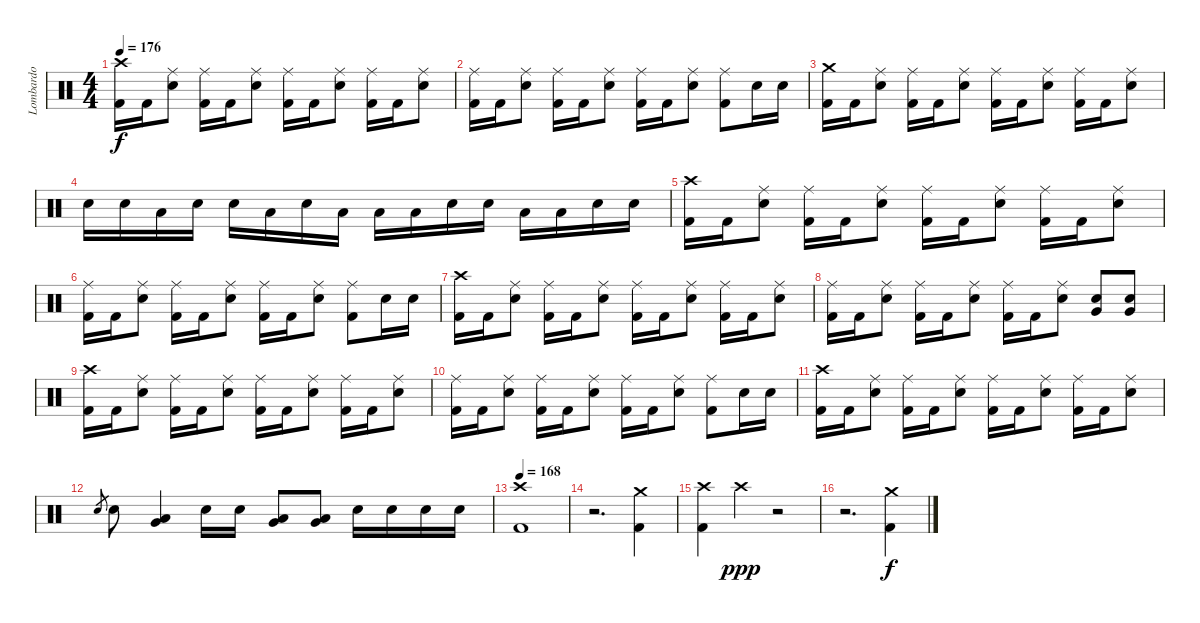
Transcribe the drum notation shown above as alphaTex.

\track ("Lombardo" "Lombardo") {instrument percussion}
\staff {score}
\articulation defaults
\ts (4 4)
\tempo 176
\clef neutral
\ks c
("Crash high (hit)" "Kick (hit) 2").16{dy f} "Kick (hit) 2".16 ("Ride (middle)" "Electric Snare (hit)").8 ("Ride (middle)" "Kick (hit) 2").16 "Kick (hit) 2".16 ("Ride (middle)" "Electric Snare (hit)").8 ("Ride (middle)" "Kick (hit) 2").16 "Kick (hit) 2".16 ("Ride (middle)" "Electric Snare (hit)").8 ("Ride (middle)" "Kick (hit) 2").16 "Kick (hit) 2".16 ("Ride (middle)" "Electric Snare (hit)").8 |
("Ride (middle)" "Kick (hit) 2").16 "Kick (hit) 2".16 ("Ride (middle)" "Electric Snare (hit)").8 ("Ride (middle)" "Kick (hit) 2").16 "Kick (hit) 2".16 ("Ride (middle)" "Electric Snare (hit)").8 ("Ride (middle)" "Kick (hit) 2").16 "Kick (hit) 2".16 ("Ride (middle)" "Electric Snare (hit)").8 ("Ride (middle)" "Kick (hit) 2").8 "Electric Snare (hit)".16 "Electric Snare (hit)".16 |
("Crash medium (hit)" "Kick (hit) 2").16 "Kick (hit) 2".16 ("Ride (middle)" "Electric Snare (hit)").8 ("Ride (middle)" "Kick (hit) 2").16 "Kick (hit) 2".16 ("Ride (middle)" "Electric Snare (hit)").8 ("Ride (middle)" "Kick (hit) 2").16 "Kick (hit) 2".16 ("Ride (middle)" "Electric Snare (hit)").8 ("Ride (middle)" "Kick (hit) 2").16 "Kick (hit) 2".16 ("Ride (middle)" "Electric Snare (hit)").8 |
"Electric Snare (hit)".16 "Electric Snare (hit)".16 "Low Tom (hit)".16 "Electric Snare (hit)".16 "Electric Snare (hit)".16 "Low Tom (hit)".16 "Electric Snare (hit)".16 "Low Tom (hit)".16 "Low Tom (hit)".16 "Low Tom (hit)".16 "Electric Snare (hit)".16 "Electric Snare (hit)".16 "Low Tom (hit)".16 "Low Tom (hit)".16 "Electric Snare (hit)".16 "Electric Snare (hit)".16 |
("Crash high (hit)" "Kick (hit) 2").16 "Kick (hit) 2".16 ("Ride (middle)" "Electric Snare (hit)").8 ("Ride (middle)" "Kick (hit) 2").16 "Kick (hit) 2".16 ("Ride (middle)" "Electric Snare (hit)").8 ("Ride (middle)" "Kick (hit) 2").16 "Kick (hit) 2".16 ("Ride (middle)" "Electric Snare (hit)").8 ("Ride (middle)" "Kick (hit) 2").16 "Kick (hit) 2".16 ("Ride (middle)" "Electric Snare (hit)").8 |
("Ride (middle)" "Kick (hit) 2").16 "Kick (hit) 2".16 ("Ride (middle)" "Electric Snare (hit)").8 ("Ride (middle)" "Kick (hit) 2").16 "Kick (hit) 2".16 ("Ride (middle)" "Electric Snare (hit)").8 ("Ride (middle)" "Kick (hit) 2").16 "Kick (hit) 2".16 ("Ride (middle)" "Electric Snare (hit)").8 ("Ride (middle)" "Kick (hit) 2").8 "Electric Snare (hit)".16 "Electric Snare (hit)".16 |
("Crash high (hit)" "Kick (hit) 2").16 "Kick (hit) 2".16 ("Ride (middle)" "Electric Snare (hit)").8 ("Ride (middle)" "Kick (hit) 2").16 "Kick (hit) 2".16 ("Ride (middle)" "Electric Snare (hit)").8 ("Ride (middle)" "Kick (hit) 2").16 "Kick (hit) 2".16 ("Ride (middle)" "Electric Snare (hit)").8 ("Ride (middle)" "Kick (hit) 2").16 "Kick (hit) 2".16 ("Ride (middle)" "Electric Snare (hit)").8 |
("Ride (middle)" "Kick (hit) 2").16 "Kick (hit) 2".16 ("Ride (middle)" "Electric Snare (hit)").8 ("Ride (middle)" "Kick (hit) 2").16 "Kick (hit) 2".16 ("Ride (middle)" "Electric Snare (hit)").8 ("Ride (middle)" "Kick (hit) 2").16 "Kick (hit) 2".16 ("Ride (middle)" "Electric Snare (hit)").8 ("Very Low Tom (hit)" "Electric Snare (hit)").8 ("Very Low Tom (hit)" "Electric Snare (hit)").8 |
("Crash high (hit)" "Kick (hit) 2").16 "Kick (hit) 2".16 ("Ride (middle)" "Electric Snare (hit)").8 ("Ride (middle)" "Kick (hit) 2").16 "Kick (hit) 2".16 ("Ride (middle)" "Electric Snare (hit)").8 ("Ride (middle)" "Kick (hit) 2").16 "Kick (hit) 2".16 ("Ride (middle)" "Electric Snare (hit)").8 ("Ride (middle)" "Kick (hit) 2").16 "Kick (hit) 2".16 ("Ride (middle)" "Electric Snare (hit)").8 |
("Ride (middle)" "Kick (hit) 2").16 "Kick (hit) 2".16 ("Ride (middle)" "Electric Snare (hit)").8 ("Ride (middle)" "Kick (hit) 2").16 "Kick (hit) 2".16 ("Ride (middle)" "Electric Snare (hit)").8 ("Ride (middle)" "Kick (hit) 2").16 "Kick (hit) 2".16 ("Ride (middle)" "Electric Snare (hit)").8 ("Ride (middle)" "Kick (hit) 2").8 "Electric Snare (hit)".16 "Electric Snare (hit)".16 |
("Crash high (hit)" "Kick (hit) 2").16 "Kick (hit) 2".16 ("Ride (middle)" "Electric Snare (hit)").8 ("Ride (middle)" "Kick (hit) 2").16 "Kick (hit) 2".16 ("Ride (middle)" "Electric Snare (hit)").8 ("Ride (middle)" "Kick (hit) 2").16 "Kick (hit) 2".16 ("Ride (middle)" "Electric Snare (hit)").8 ("Ride (middle)" "Kick (hit) 2").16 "Kick (hit) 2".16 ("Ride (middle)" "Electric Snare (hit)").8 |
"Electric Snare (hit)".8{gr} "Electric Snare (hit)".8 ("Very Low Tom (hit)" "Low Tom (hit)").4 "Electric Snare (hit)".16 "Electric Snare (hit)".16 ("Very Low Tom (hit)" "Low Tom (hit)").8 ("Very Low Tom (hit)" "Low Tom (hit)").8 "Electric Snare (hit)".16 "Electric Snare (hit)".16 "Electric Snare (hit)".16 "Electric Snare (hit)".16 |
\tempo 168
("Crash high (hit)" "Kick (hit) 2").1 |
r.2{d} ("Crash medium (hit)" "Kick (hit) 2").4 |
("Crash high (hit)" "Kick (hit) 2").4 "Crash high (hit)".4{dy ppp} r.2 |
r.2{d} ("Crash medium (hit)" "Kick (hit) 2").4{dy f}
